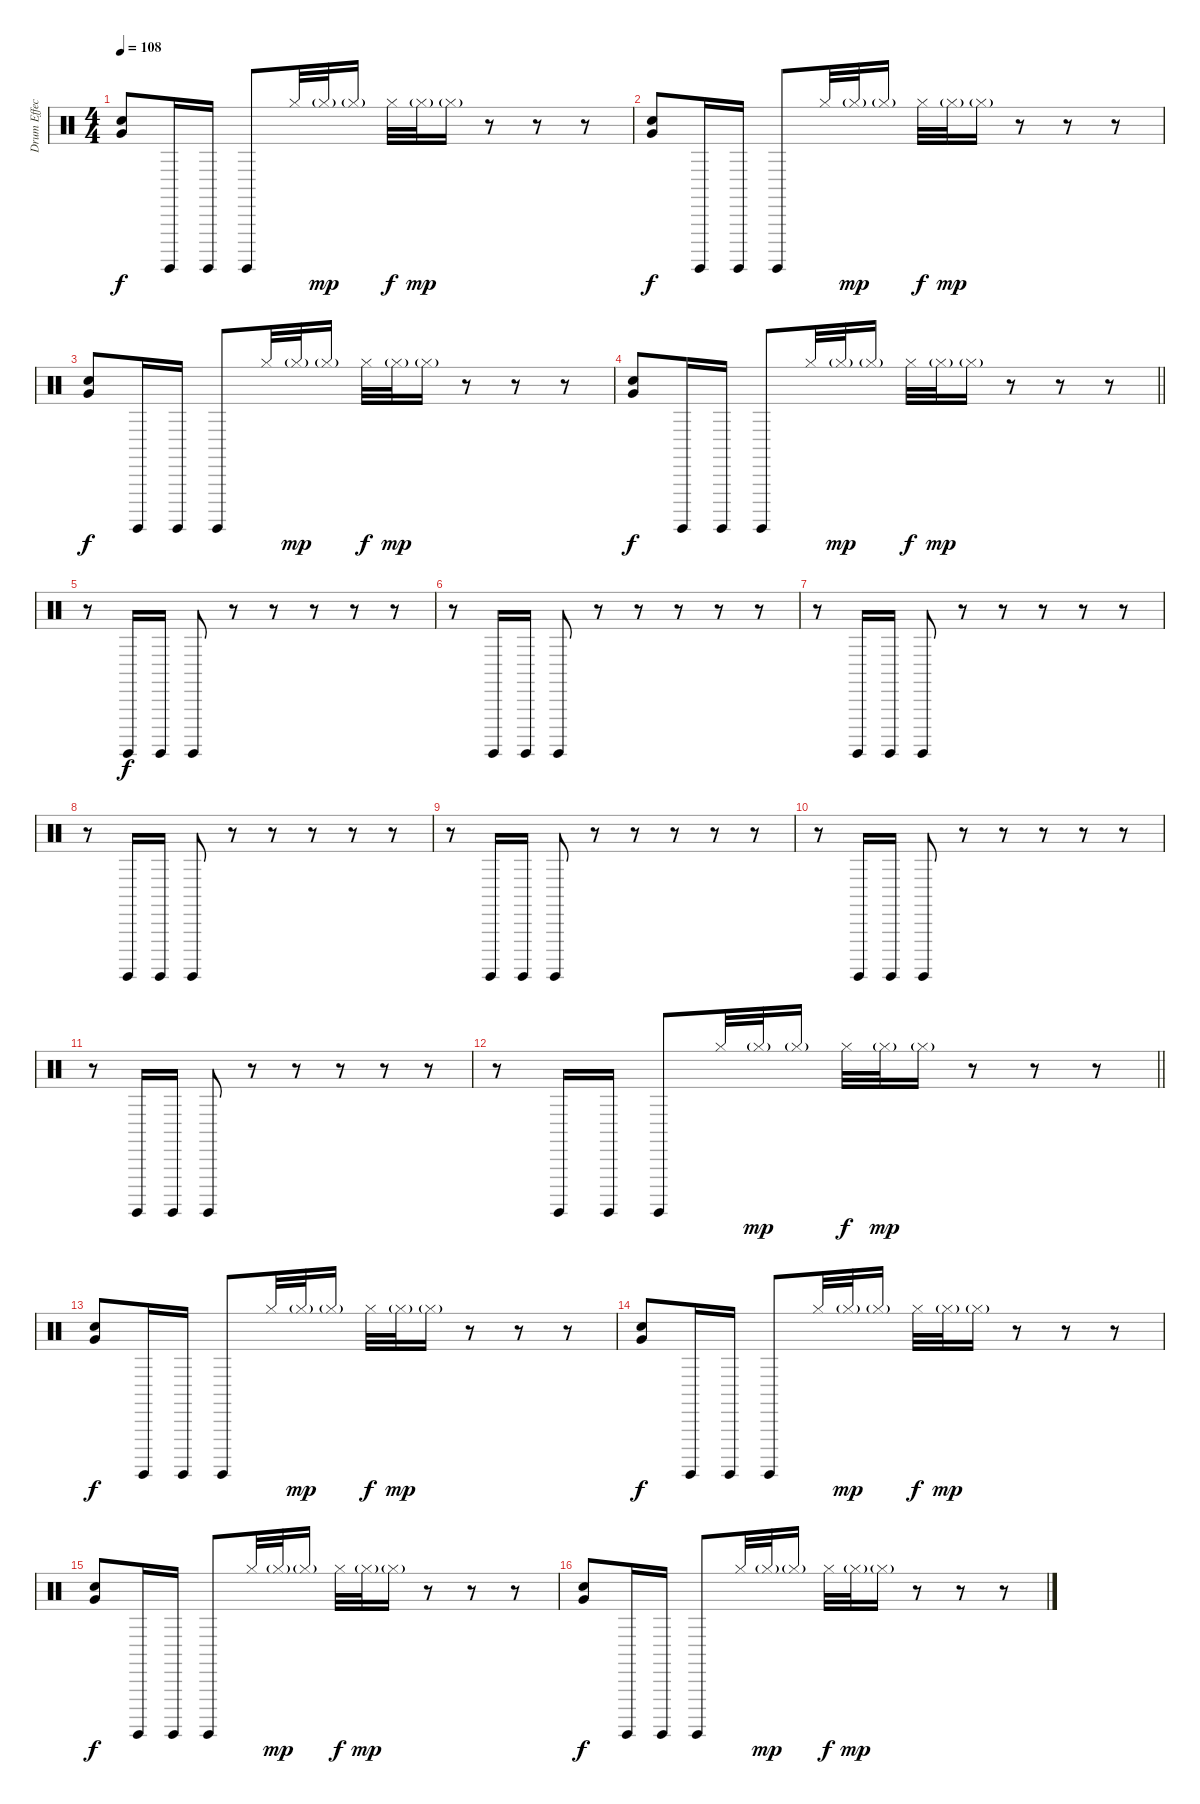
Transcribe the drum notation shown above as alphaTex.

\track ("Drum Effects" "Drum Effec") {instrument percussion}
\staff {score}
\articulation defaults
\ts (4 4)
\tempo 108
\clef neutral
\ks c
("Hand Clap (hit)" "Very Low Tom (hit)").8{dy f} "Surdo (hit)".16 "Surdo (hit)".16 "Surdo (hit)".8 "Hi-Hat (closed)".32 "Hi-Hat (closed)"{g}.32{dy mp} "Hi-Hat (closed)"{g}.16 "Hi-Hat (closed)".32{dy f} "Hi-Hat (closed)"{g}.32{dy mp} "Hi-Hat (closed)"{g}.16 r.8 r.8 r.8 |
("Hand Clap (hit)" "Very Low Tom (hit)").8{dy f} "Surdo (hit)".16 "Surdo (hit)".16 "Surdo (hit)".8 "Hi-Hat (closed)".32 "Hi-Hat (closed)"{g}.32{dy mp} "Hi-Hat (closed)"{g}.16 "Hi-Hat (closed)".32{dy f} "Hi-Hat (closed)"{g}.32{dy mp} "Hi-Hat (closed)"{g}.16 r.8 r.8 r.8 |
("Hand Clap (hit)" "Very Low Tom (hit)").8{dy f} "Surdo (hit)".16 "Surdo (hit)".16 "Surdo (hit)".8 "Hi-Hat (closed)".32 "Hi-Hat (closed)"{g}.32{dy mp} "Hi-Hat (closed)"{g}.16 "Hi-Hat (closed)".32{dy f} "Hi-Hat (closed)"{g}.32{dy mp} "Hi-Hat (closed)"{g}.16 r.8 r.8 r.8 |
\barLineRight lightlight
("Hand Clap (hit)" "Very Low Tom (hit)").8{dy f} "Surdo (hit)".16 "Surdo (hit)".16 "Surdo (hit)".8 "Hi-Hat (closed)".32 "Hi-Hat (closed)"{g}.32{dy mp} "Hi-Hat (closed)"{g}.16 "Hi-Hat (closed)".32{dy f} "Hi-Hat (closed)"{g}.32{dy mp} "Hi-Hat (closed)"{g}.16 r.8 r.8 r.8 |
\section ("" "")
r.8 "Surdo (hit)".16{dy f} "Surdo (hit)".16 "Surdo (hit)".8 r.8 r.8 r.8 r.8 r.8 |
r.8 "Surdo (hit)".16 "Surdo (hit)".16 "Surdo (hit)".8 r.8 r.8 r.8 r.8 r.8 |
r.8 "Surdo (hit)".16 "Surdo (hit)".16 "Surdo (hit)".8 r.8 r.8 r.8 r.8 r.8 |
r.8 "Surdo (hit)".16 "Surdo (hit)".16 "Surdo (hit)".8 r.8 r.8 r.8 r.8 r.8 |
r.8 "Surdo (hit)".16 "Surdo (hit)".16 "Surdo (hit)".8 r.8 r.8 r.8 r.8 r.8 |
r.8 "Surdo (hit)".16 "Surdo (hit)".16 "Surdo (hit)".8 r.8 r.8 r.8 r.8 r.8 |
r.8 "Surdo (hit)".16 "Surdo (hit)".16 "Surdo (hit)".8 r.8 r.8 r.8 r.8 r.8 |
\barLineRight lightlight
r.8 "Surdo (hit)".16 "Surdo (hit)".16 "Surdo (hit)".8 "Hi-Hat (closed)".32 "Hi-Hat (closed)"{g}.32{dy mp} "Hi-Hat (closed)"{g}.16 "Hi-Hat (closed)".32{dy f} "Hi-Hat (closed)"{g}.32{dy mp} "Hi-Hat (closed)"{g}.16 r.8 r.8 r.8 |
\section ("" "")
("Hand Clap (hit)" "Very Low Tom (hit)").8{dy f} "Surdo (hit)".16 "Surdo (hit)".16 "Surdo (hit)".8 "Hi-Hat (closed)".32 "Hi-Hat (closed)"{g}.32{dy mp} "Hi-Hat (closed)"{g}.16 "Hi-Hat (closed)".32{dy f} "Hi-Hat (closed)"{g}.32{dy mp} "Hi-Hat (closed)"{g}.16 r.8 r.8 r.8 |
("Hand Clap (hit)" "Very Low Tom (hit)").8{dy f} "Surdo (hit)".16 "Surdo (hit)".16 "Surdo (hit)".8 "Hi-Hat (closed)".32 "Hi-Hat (closed)"{g}.32{dy mp} "Hi-Hat (closed)"{g}.16 "Hi-Hat (closed)".32{dy f} "Hi-Hat (closed)"{g}.32{dy mp} "Hi-Hat (closed)"{g}.16 r.8 r.8 r.8 |
("Hand Clap (hit)" "Very Low Tom (hit)").8{dy f} "Surdo (hit)".16 "Surdo (hit)".16 "Surdo (hit)".8 "Hi-Hat (closed)".32 "Hi-Hat (closed)"{g}.32{dy mp} "Hi-Hat (closed)"{g}.16 "Hi-Hat (closed)".32{dy f} "Hi-Hat (closed)"{g}.32{dy mp} "Hi-Hat (closed)"{g}.16 r.8 r.8 r.8 |
("Hand Clap (hit)" "Very Low Tom (hit)").8{dy f} "Surdo (hit)".16 "Surdo (hit)".16 "Surdo (hit)".8 "Hi-Hat (closed)".32 "Hi-Hat (closed)"{g}.32{dy mp} "Hi-Hat (closed)"{g}.16 "Hi-Hat (closed)".32{dy f} "Hi-Hat (closed)"{g}.32{dy mp} "Hi-Hat (closed)"{g}.16 r.8 r.8 r.8
